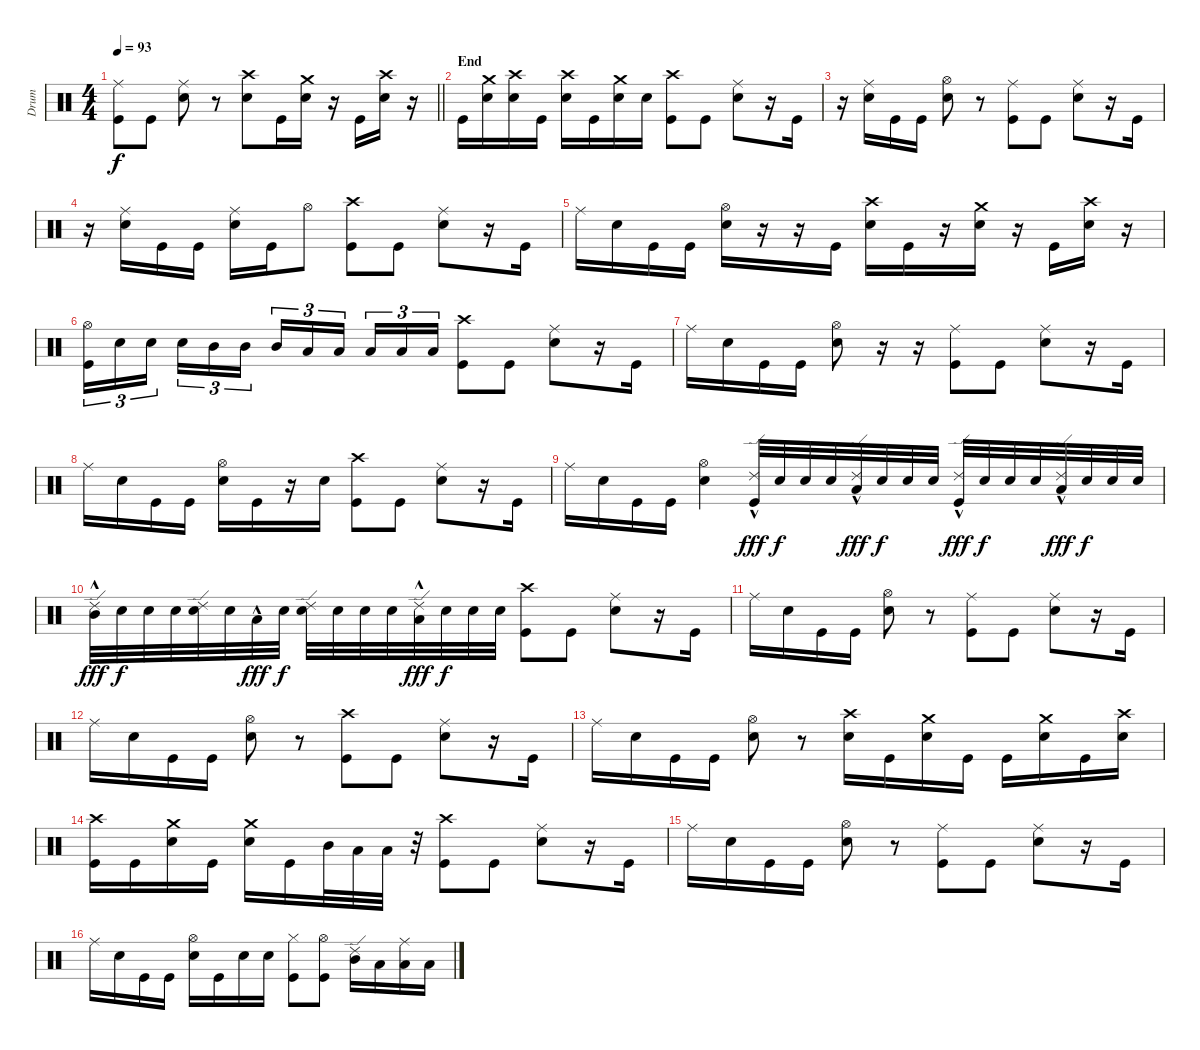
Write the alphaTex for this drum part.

\track ("Drum" "Drum") {instrument percussion}
\staff {score}
\articulation defaults
\ts (4 4)
\tempo 93
\clef neutral
\barLineRight lightlight
\ks c
("Ride (middle)" "Kick (hit)").8{dy f} "Kick (hit)".8 ("Ride (middle)" "Snare (hit) 2").8 r.8 ("Crash high (hit)" "Snare (hit) 2").8 "Kick (hit)".16 ("Crash medium (hit)" "Snare (hit) 2").16 r.16 "Kick (hit)".16 ("Crash high (hit)" "Snare (hit) 2").16 r.16 |
\section ("" "End")
"Kick (hit)".16 ("Crash medium (hit)" "Snare (hit) 2").16 ("Crash high (hit)" "Snare (hit) 2").16 "Kick (hit)".16 ("Crash high (hit)" "Snare (hit) 2").16 "Kick (hit)".16 ("Crash medium (hit)" "Snare (hit) 2").16 "Snare (hit) 2".16 ("Crash high (hit)" "Kick (hit)").8 "Kick (hit)".8 ("Ride (middle)" "Snare (hit) 2").8 r.16 "Kick (hit)".16 |
r.16 ("Ride (middle)" "Snare (hit) 2").16 "Kick (hit)".16 "Kick (hit)".16 ("Hi-Hat (open)" "Snare (hit) 2").8 r.8 ("Ride (middle)" "Kick (hit)").8 "Kick (hit)".8 ("Ride (middle)" "Snare (hit) 2").8 r.16 "Kick (hit)".16 |
r.16 ("Ride (middle)" "Snare (hit) 2").16 "Kick (hit)".16 "Kick (hit)".16 ("Ride (middle)" "Snare (hit) 2").16 "Kick (hit)".16 "Hi-Hat (open)".8 ("Crash high (hit)" "Kick (hit)").8 "Kick (hit)".8 ("Ride (middle)" "Snare (hit) 2").8 r.16 "Kick (hit)".16 |
"Ride (middle)".16 "Snare (hit) 2".16 "Kick (hit)".16 "Kick (hit)".16 ("Hi-Hat (open)" "Snare (hit) 2").16 r.16 r.16 "Kick (hit)".16 ("Crash high (hit)" "Snare (hit) 2").16 "Kick (hit)".16 r.16 ("Crash medium (hit)" "Snare (hit) 2").16 r.16 "Kick (hit)".16 ("Crash high (hit)" "Snare (hit) 2").16 r.16 |
("Hi-Hat (open)" "Kick (hit)").16{tu (3 2)} "Snare (hit) 2".16{tu (3 2)} "Snare (hit) 2".16{tu (3 2) beam splitsecondary} "Snare (hit) 2".16{tu (3 2)} "Mid Tom (hit)".16{tu (3 2)} "Mid Tom (hit)".16{tu (3 2)} "Mid Tom (hit)".16{tu (3 2)} "Low Floor Tom (hit)".16{tu (3 2)} "Low Floor Tom (hit)".16{tu (3 2) beam splitsecondary} "Low Floor Tom (hit)".16{tu (3 2)} "Low Floor Tom (hit)".16{tu (3 2)} "Low Floor Tom (hit)".16{tu (3 2)} ("Crash high (hit)" "Kick (hit)").8 "Kick (hit)".8 ("Ride (middle)" "Snare (hit) 2").8 r.16 "Kick (hit)".16 |
"Ride (middle)".16 "Snare (hit) 2".16 "Kick (hit)".16 "Kick (hit)".16 ("Hi-Hat (open)" "Snare (hit) 2").8 r.16 r.16 ("Ride (middle)" "Kick (hit)").8 "Kick (hit)".8 ("Ride (middle)" "Snare (hit) 2").8 r.16 "Kick (hit)".16 |
"Ride (middle)".16 "Snare (hit) 2".16 "Kick (hit)".16 "Kick (hit)".16 ("Hi-Hat (open)" "Snare (hit) 2").16 "Kick (hit)".16 r.16 "Snare (hit) 2".16 ("Crash high (hit)" "Kick (hit)").8 "Kick (hit)".8 ("Ride (middle)" "Snare (hit) 2").8 r.16 "Kick (hit)".16 |
"Ride (middle)".16 "Snare (hit) 2".16 "Kick (hit)".16 "Kick (hit)".16 ("Hi-Hat (open)" "Snare (hit) 2").4 ("Ride (edge) 2" "Kick (hit)"{hac}).32{dy fff} "Snare (hit) 2".32{dy f} "Snare (hit) 2".32 "Snare (hit) 2".32 ("Ride (edge) 2" "Low Floor Tom (hit)"{hac}).32{dy fff} "Snare (hit) 2".32{dy f} "Snare (hit) 2".32 "Snare (hit) 2".32 ("Ride (edge) 2" "Kick (hit)"{hac}).32{dy fff} "Snare (hit) 2".32{dy f} "Snare (hit) 2".32 "Snare (hit) 2".32 ("Ride (edge) 2" "Low Floor Tom (hit)"{hac}).32{dy fff} "Snare (hit) 2".32{dy f} "Snare (hit) 2".32 "Snare (hit) 2".32 |
("Ride (edge) 2" "Mid Tom (hit)"{hac}).32{dy fff balance 3} "Snare (hit) 2".32{dy f balance 8} "Snare (hit) 2".32 "Snare (hit) 2".32 ("Ride (edge) 2" "Snare (hit) 2").32 "Snare (hit) 2".32 "Low Tom (hit)"{hac}.32{dy fff balance 9} "Snare (hit) 2".32{dy f balance 8} ("Ride (edge) 2" "Snare (hit) 2").32 "Snare (hit) 2".32 "Snare (hit) 2".32 "Snare (hit) 2".32 ("Ride (edge) 2" "Low Floor Tom (hit)"{hac}).32{dy fff balance 16} "Snare (hit) 2".32{dy f balance 8} "Snare (hit) 2".32 "Snare (hit) 2".32 ("Crash high (hit)" "Kick (hit)").8 "Kick (hit)".8 ("Ride (middle)" "Snare (hit) 2").8 r.16 "Kick (hit)".16 |
"Ride (middle)".16 "Snare (hit) 2".16 "Kick (hit)".16 "Kick (hit)".16 ("Hi-Hat (open)" "Snare (hit) 2").8 r.8 ("Ride (middle)" "Kick (hit)").8 "Kick (hit)".8 ("Ride (middle)" "Snare (hit) 2").8 r.16 "Kick (hit)".16 |
"Ride (middle)".16 "Snare (hit) 2".16 "Kick (hit)".16 "Kick (hit)".16 ("Hi-Hat (open)" "Snare (hit) 2").8 r.8 ("Crash high (hit)" "Kick (hit)").8 "Kick (hit)".8 ("Ride (middle)" "Snare (hit) 2").8 r.16 "Kick (hit)".16 |
"Ride (middle)".16 "Snare (hit) 2".16 "Kick (hit)".16 "Kick (hit)".16 ("Hi-Hat (open)" "Snare (hit) 2").8 r.8 ("Crash high (hit)" "Snare (hit) 2").16 "Kick (hit)".16 ("Crash medium (hit)" "Snare (hit) 2").16 "Kick (hit)".16 "Kick (hit)".16 ("Crash medium (hit)" "Snare (hit) 2").16 "Kick (hit)".16 ("Crash high (hit)" "Snare (hit) 2").16 |
("Crash high (hit)" "Kick (hit)").16 "Kick (hit)".16 ("Crash medium (hit)" "Snare (hit) 2").16 "Kick (hit)".16 ("Crash medium (hit)" "Snare (hit) 2").16 "Kick (hit)".16 "Mid Tom (hit)".32 "Low Tom (hit)".32 "Low Floor Tom (hit)".32 r.32 ("Crash high (hit)" "Kick (hit)").8 "Kick (hit)".8 ("Ride (middle)" "Snare (hit) 2").8 r.16 "Kick (hit)".16 |
"Ride (middle)".16 "Snare (hit) 2".16 "Kick (hit)".16 "Kick (hit)".16 ("Hi-Hat (open)" "Snare (hit) 2").8 r.8 ("Ride (middle)" "Kick (hit)").8 "Kick (hit)".8 ("Ride (middle)" "Snare (hit) 2").8 r.16 "Kick (hit)".16 |
"Ride (middle)".16 "Snare (hit) 2".16 "Kick (hit)".16 "Kick (hit)".16 ("Hi-Hat (open)" "Snare (hit) 2").16 "Kick (hit)".16 "Snare (hit) 2".16 "Snare (hit) 2".16 ("Hi-Hat (closed)" "Kick (hit)").8 ("Hi-Hat (open)" "Kick (hit)").8 ("Ride (edge) 2" "Mid Tom (hit)").16{balance 3} "Low Tom (hit)".16{balance 9} ("Ride (middle)" "Low Floor Tom (hit)").16{balance 16} "Low Floor Tom (hit)".16{balance 16}
